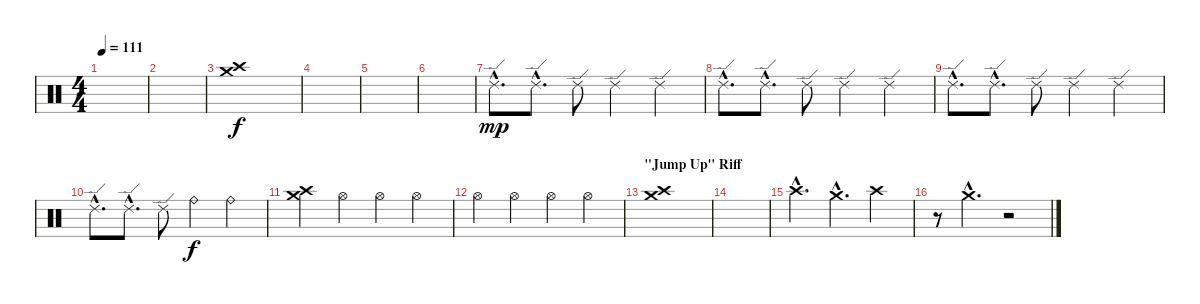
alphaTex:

\track "" {instrument percussion}
\staff {score}
\articulation defaults
\ts (4 4)
\tempo 111
\clef neutral
\ks c
|
|
("Crash medium (hit)" "Crash high (hit)").1{dy f} |
|
|
|
"Ride (edge) 2"{hac}.8{d dy mp} "Ride (edge) 2"{hac}.8{d} "Ride (edge) 2".8 "Ride (edge) 2".4 "Ride (edge) 2".4 |
"Ride (edge) 2"{hac}.8{d} "Ride (edge) 2"{hac}.8{d} "Ride (edge) 2".8 "Ride (edge) 2".4 "Ride (edge) 2".4 |
"Ride (edge) 2"{hac}.8{d} "Ride (edge) 2"{hac}.8{d} "Ride (edge) 2".8 "Ride (edge) 2".4 "Ride (edge) 2".4 |
"Ride (edge) 2"{hac}.8{d} "Ride (edge) 2"{hac}.8{d} "Ride (edge) 2".8 "Ride (bell)".4{dy f} "Ride (bell)".4 |
("Crash medium (hit)" "Crash high (hit)").4 "Hi-Hat (open)".4 "Hi-Hat (open)".4 "Hi-Hat (open)".4 |
"Hi-Hat (open)".4 "Hi-Hat (open)".4 "Hi-Hat (open)".4 "Hi-Hat (open)".4 |
\section ("" "\"Jump Up\" Riff")
("Crash medium (hit)" "Crash high (hit)").1 |
|
"Crash high (hit)"{hac}.4{d} "Crash medium (hit)"{hac}.4{d} "Crash high (hit)".4 |
r.8 "Crash medium (hit)"{hac}.4{d} r.2
